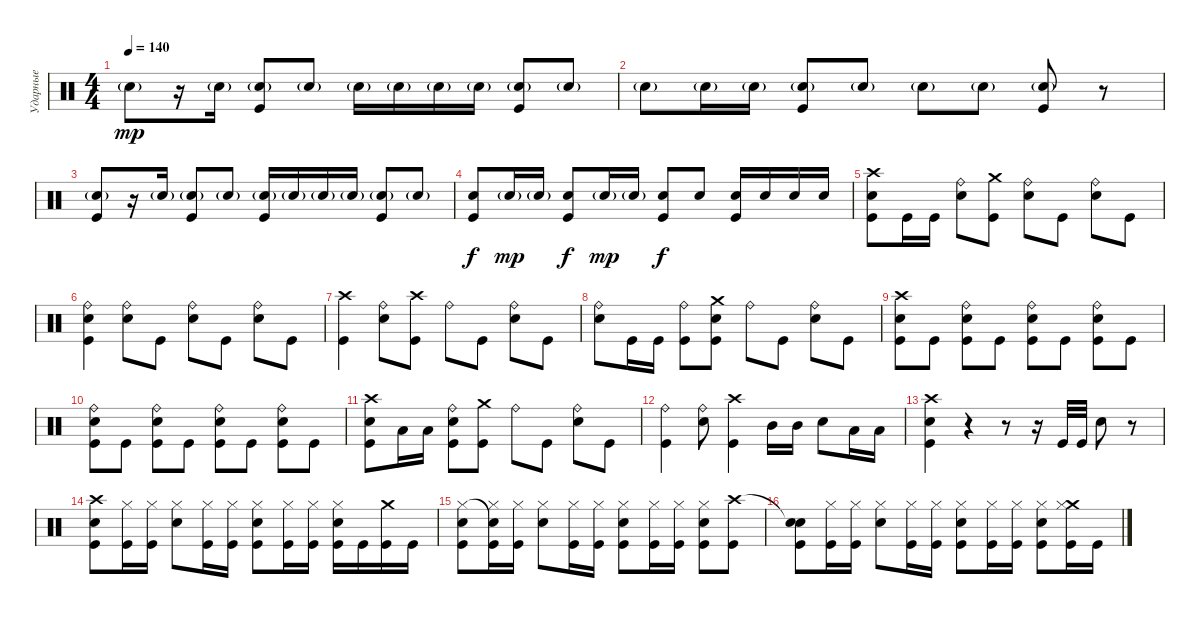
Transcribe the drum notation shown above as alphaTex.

\track ("Ударные" "Ударные") {instrument percussion}
\staff {score}
\articulation defaults
\ts (4 4)
\tempo 140
\clef neutral
\ks c "Electric Snare (hit)"{g}.8{dy mp}
r.16 "Electric Snare (hit)"{g}.16 ("Electric Snare (hit)"{g} "Kick (hit)").8 "Electric Snare (hit)"{g}.8 "Electric Snare (hit)"{g}.16 "Electric Snare (hit)"{g}.16 "Electric Snare (hit)"{g}.16 "Electric Snare (hit)"{g}.16 ("Electric Snare (hit)"{g} "Kick (hit)").8 "Electric Snare (hit)"{g}.8 |
"Electric Snare (hit)"{g}.8 "Electric Snare (hit)"{g}.16 "Electric Snare (hit)"{g}.16 ("Electric Snare (hit)"{g} "Kick (hit)").8 "Electric Snare (hit)"{g}.8 "Electric Snare (hit)"{g}.8 "Electric Snare (hit)"{g}.8 ("Electric Snare (hit)"{g} "Kick (hit)").8 r.8 |
("Electric Snare (hit)"{g} "Kick (hit)").8 r.16 "Electric Snare (hit)"{g}.16 ("Electric Snare (hit)"{g} "Kick (hit)").8 "Electric Snare (hit)"{g}.8 ("Electric Snare (hit)"{g} "Kick (hit)").16 "Electric Snare (hit)"{g}.16 "Electric Snare (hit)"{g}.16 "Electric Snare (hit)"{g}.16 ("Electric Snare (hit)"{g} "Kick (hit)").8 "Electric Snare (hit)"{g}.8 |
("Electric Snare (hit)" "Kick (hit)").8{dy f} "Electric Snare (hit)"{g}.16{dy mp} "Electric Snare (hit)"{g}.16 ("Electric Snare (hit)" "Kick (hit)").8{dy f} "Electric Snare (hit)"{g}.16{dy mp} "Electric Snare (hit)"{g}.16 ("Electric Snare (hit)" "Kick (hit)").8{dy f} "Electric Snare (hit)".8 ("Electric Snare (hit)" "Kick (hit)").16 "Electric Snare (hit)".16 "Electric Snare (hit)".16 "Electric Snare (hit)".16 |
("Crash high (hit)" "Electric Snare (hit)" "Kick (hit)").8 "Kick (hit)".16 "Kick (hit)".16 ("Ride (bell)" "Electric Snare (hit)").8 ("Crash medium (hit)" "Kick (hit)").8 ("Ride (bell)" "Electric Snare (hit)").8 "Kick (hit)".8 ("Ride (bell)" "Electric Snare (hit)").8 "Kick (hit)".8 |
("Ride (bell)" "Electric Snare (hit)" "Kick (hit)").4 ("Ride (bell)" "Electric Snare (hit)").8 "Kick (hit)".8 ("Ride (bell)" "Electric Snare (hit)").8 "Kick (hit)".8 ("Ride (bell)" "Electric Snare (hit)").8 "Kick (hit)".8 |
("Crash high (hit)" "Kick (hit)").4 ("Ride (bell)" "Electric Snare (hit)").8 ("Crash high (hit)" "Kick (hit)").8 "Ride (bell)".8 "Kick (hit)".8 ("Ride (bell)" "Electric Snare (hit)").8 "Kick (hit)".8 |
("Ride (bell)" "Electric Snare (hit)").8 "Kick (hit)".16 "Kick (hit)".16 ("Ride (bell)" "Kick (hit)").8 ("Crash medium (hit)" "Electric Snare (hit)" "Kick (hit)").8 "Ride (bell)".8 "Kick (hit)".8 ("Ride (bell)" "Electric Snare (hit)").8 "Kick (hit)".8 |
("Crash high (hit)" "Electric Snare (hit)" "Kick (hit)").8 "Kick (hit)".8 ("Ride (bell)" "Electric Snare (hit)" "Kick (hit)").8 "Kick (hit)".8 ("Ride (bell)" "Electric Snare (hit)" "Kick (hit)").8 "Kick (hit)".8 ("Ride (bell)" "Electric Snare (hit)" "Kick (hit)").8 "Kick (hit)".8 |
("Ride (bell)" "Electric Snare (hit)" "Kick (hit)").8 "Kick (hit)".8 ("Ride (bell)" "Electric Snare (hit)" "Kick (hit)").8 "Kick (hit)".8 ("Ride (bell)" "Electric Snare (hit)" "Kick (hit)").8 "Kick (hit)".8 ("Ride (bell)" "Electric Snare (hit)" "Kick (hit)").8 "Kick (hit)".8 |
("Crash high (hit)" "Electric Snare (hit)" "Kick (hit)").8 "Low Tom (hit)".16 "Low Tom (hit)".16 ("Ride (bell)" "Electric Snare (hit)" "Kick (hit)").8 ("Crash medium (hit)" "Kick (hit)").8 "Ride (bell)".8 "Kick (hit)".8 ("Ride (bell)" "Electric Snare (hit)").8 "Kick (hit)".8 |
("Ride (bell)" "Kick (hit)").4 ("Ride (bell)" "Electric Snare (hit)").8 ("Crash high (hit)" "Kick (hit)").4 "Mid Tom (hit)".16 "Mid Tom (hit)".16 "Electric Snare (hit)".8 "Low Tom (hit)".16 "Low Tom (hit)".16 |
("Electric Snare (hit)" "Kick (hit)" "Crash high (hit)").4 r.4 r.8 r.16 "Kick (hit)".32 "Kick (hit)".32 "Electric Snare (hit)".8 r.8 |
("Crash high (hit)" "Electric Snare (hit)" "Kick (hit)").8 ("Hi-Hat (closed)" "Kick (hit)").16 ("Hi-Hat (closed)" "Kick (hit)").16 ("Hi-Hat (closed)" "Electric Snare (hit)").8 ("Hi-Hat (closed)" "Kick (hit)").16 ("Hi-Hat (closed)" "Kick (hit)").16 ("Hi-Hat (closed)" "Electric Snare (hit)" "Kick (hit)").8 ("Hi-Hat (closed)" "Kick (hit)").16 ("Hi-Hat (closed)" "Kick (hit)").16 ("Hi-Hat (closed)" "Electric Snare (hit)" "Kick (hit)").16 "Kick (hit)".16 ("Crash medium (hit)" "Kick (hit)").16 "Kick (hit)".16 |
("Hi-Hat (closed)" "Electric Snare (hit)" "Kick (hit)").8 ("Snare (hit)"{t} "Hi-Hat (closed)" "Kick (hit)").16 ("Hi-Hat (closed)" "Kick (hit)").16 ("Hi-Hat (closed)" "Electric Snare (hit)").8 ("Hi-Hat (closed)" "Kick (hit)").16 ("Hi-Hat (closed)" "Kick (hit)").16 ("Hi-Hat (closed)" "Electric Snare (hit)" "Kick (hit)").8 ("Hi-Hat (closed)" "Kick (hit)").16 ("Hi-Hat (closed)" "Kick (hit)").16 ("Hi-Hat (closed)" "Electric Snare (hit)" "Kick (hit)").8 ("Crash high (hit)" "Kick (hit)").8 |
("Snare (hit)"{t} "Electric Snare (hit)" "Kick (hit)").8 ("Hi-Hat (closed)" "Kick (hit)").16 ("Hi-Hat (closed)" "Kick (hit)").16 ("Hi-Hat (closed)" "Electric Snare (hit)").8 ("Hi-Hat (closed)" "Kick (hit)").16 ("Hi-Hat (closed)" "Kick (hit)").16 ("Hi-Hat (closed)" "Electric Snare (hit)" "Kick (hit)").8 ("Hi-Hat (closed)" "Kick (hit)").16 ("Hi-Hat (closed)" "Kick (hit)").16 ("Hi-Hat (closed)" "Electric Snare (hit)" "Kick (hit)").8 ("Crash medium (hit)" "Hi-Hat (closed)" "Kick (hit)").16 "Kick (hit)".16
